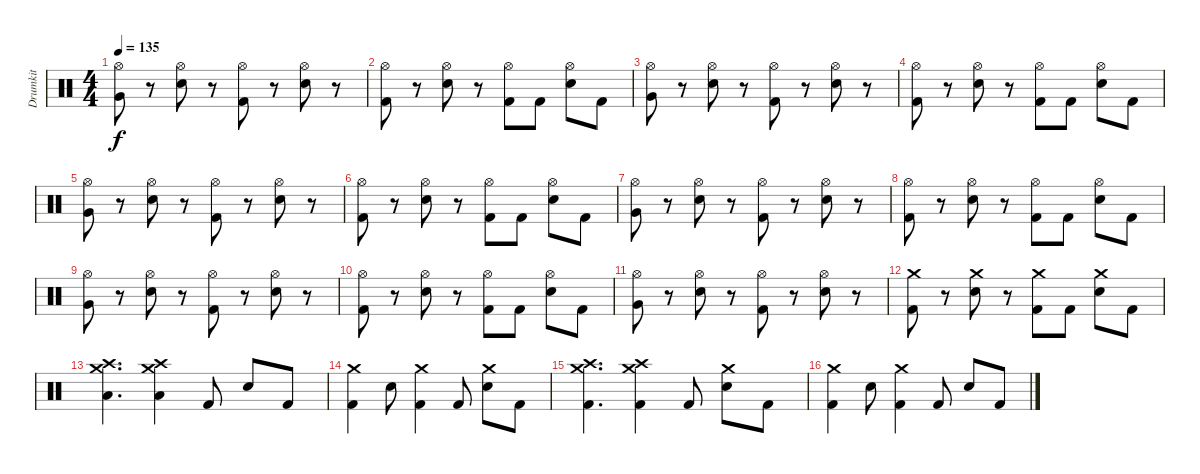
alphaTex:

\track ("Drumkit" "Drumkit") {instrument percussion}
\staff {score}
\articulation defaults
\ts (4 4)
\tempo 135
\clef neutral
\ks c
("Hi-Hat (open)" "Very Low Tom (hit)").8{dy f} r.8 ("Hi-Hat (open)" "Snare (hit) 2").8 r.8 ("Hi-Hat (open)" "Kick (hit) 2").8 r.8 ("Hi-Hat (open)" "Snare (hit) 2").8 r.8 |
("Hi-Hat (open)" "Kick (hit) 2").8 r.8 ("Hi-Hat (open)" "Snare (hit) 2").8 r.8 ("Hi-Hat (open)" "Kick (hit) 2").8 "Kick (hit) 2".8 ("Hi-Hat (open)" "Snare (hit) 2").8 "Kick (hit) 2".8 |
("Hi-Hat (open)" "Very Low Tom (hit)").8 r.8 ("Hi-Hat (open)" "Snare (hit) 2").8 r.8 ("Hi-Hat (open)" "Kick (hit) 2").8 r.8 ("Hi-Hat (open)" "Snare (hit) 2").8 r.8 |
("Hi-Hat (open)" "Kick (hit) 2").8 r.8 ("Hi-Hat (open)" "Snare (hit) 2").8 r.8 ("Hi-Hat (open)" "Kick (hit) 2").8 "Kick (hit) 2".8 ("Hi-Hat (open)" "Snare (hit) 2").8 "Kick (hit) 2".8 |
("Hi-Hat (open)" "Very Low Tom (hit)").8 r.8 ("Hi-Hat (open)" "Snare (hit) 2").8 r.8 ("Hi-Hat (open)" "Kick (hit) 2").8 r.8 ("Hi-Hat (open)" "Snare (hit) 2").8 r.8 |
("Hi-Hat (open)" "Kick (hit) 2").8 r.8 ("Hi-Hat (open)" "Snare (hit) 2").8 r.8 ("Hi-Hat (open)" "Kick (hit) 2").8 "Kick (hit) 2".8 ("Hi-Hat (open)" "Snare (hit) 2").8 "Kick (hit) 2".8 |
("Hi-Hat (open)" "Very Low Tom (hit)").8 r.8 ("Hi-Hat (open)" "Snare (hit) 2").8 r.8 ("Hi-Hat (open)" "Kick (hit) 2").8 r.8 ("Hi-Hat (open)" "Snare (hit) 2").8 r.8 |
("Hi-Hat (open)" "Kick (hit) 2").8 r.8 ("Hi-Hat (open)" "Snare (hit) 2").8 r.8 ("Hi-Hat (open)" "Kick (hit) 2").8 "Kick (hit) 2".8 ("Hi-Hat (open)" "Snare (hit) 2").8 "Kick (hit) 2".8 |
("Hi-Hat (open)" "Very Low Tom (hit)").8 r.8 ("Hi-Hat (open)" "Snare (hit) 2").8 r.8 ("Hi-Hat (open)" "Kick (hit) 2").8 r.8 ("Hi-Hat (open)" "Snare (hit) 2").8 r.8 |
("Hi-Hat (open)" "Kick (hit) 2").8 r.8 ("Hi-Hat (open)" "Snare (hit) 2").8 r.8 ("Hi-Hat (open)" "Kick (hit) 2").8 "Kick (hit) 2".8 ("Hi-Hat (open)" "Snare (hit) 2").8 "Kick (hit) 2".8 |
("Hi-Hat (open)" "Very Low Tom (hit)").8 r.8 ("Hi-Hat (open)" "Snare (hit) 2").8 r.8 ("Hi-Hat (open)" "Kick (hit) 2").8 r.8 ("Hi-Hat (open)" "Snare (hit) 2").8 r.8 |
("Crash medium (hit)" "Kick (hit) 2").8 r.8 ("Crash medium (hit)" "Snare (hit) 2").8 r.8 ("Crash medium (hit)" "Kick (hit) 2").8 "Kick (hit) 2".8 ("Crash medium (hit)" "Snare (hit) 2").8 "Kick (hit) 2".8 |
("Crash high (hit)" "Crash medium (hit)" "Low Floor Tom (hit)").4{d} ("Crash high (hit)" "Crash medium (hit)" "Low Floor Tom (hit)").4 "Kick (hit) 2".8 "Snare (hit) 2".8 "Kick (hit) 2".8 |
("Crash medium (hit)" "Kick (hit) 2").4 "Snare (hit) 2".8 ("Crash medium (hit)" "Kick (hit) 2").4 "Kick (hit) 2".8 ("Crash medium (hit)" "Snare (hit) 2").8 "Kick (hit) 2".8 |
("Crash high (hit)" "Crash medium (hit)" "Kick (hit) 2").4{d} ("Crash high (hit)" "Crash medium (hit)" "Kick (hit) 2").4 "Kick (hit) 2".8 ("Crash medium (hit)" "Snare (hit) 2").8 "Kick (hit) 2".8 |
("Crash medium (hit)" "Kick (hit) 2").4 "Snare (hit) 2".8 ("Crash medium (hit)" "Kick (hit) 2").4 "Kick (hit) 2".8 "Snare (hit) 2".8 "Kick (hit) 2".8
